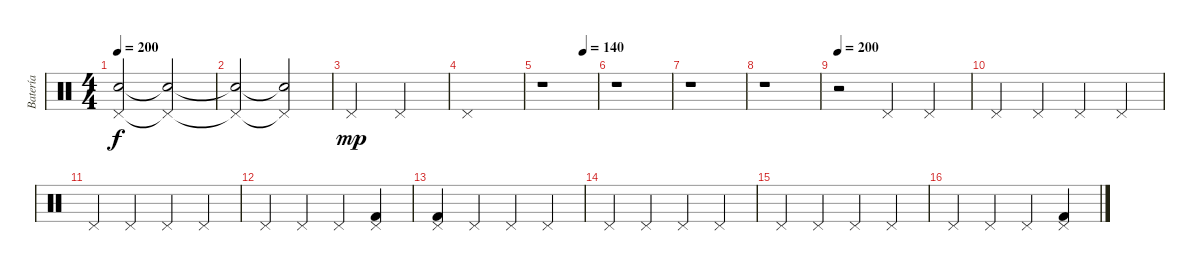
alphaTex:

\track ("Batería" "Batería") {instrument percussion}
\staff {score}
\articulation defaults
\ts (4 4)
\tempo 200
\clef neutral
\ks c
("Pedal Hi-Hat (hit)"{t} "Snare (hit)"{t}).2{dy f} ("Pedal Hi-Hat (hit)"{t} "Snare (hit)"{t}).2 |
("Pedal Hi-Hat (hit)"{t} "Snare (hit)"{t}).2 ("Pedal Hi-Hat (hit)"{t} "Snare (hit)"{t}).2 |
"Pedal Hi-Hat (hit)".2{dy mp} "Pedal Hi-Hat (hit)".2 |
"Pedal Hi-Hat (hit)".1 |
\tempo (140 0.75)
r.1 |
r.1 |
r.1 |
r.1 |
\tempo 190
\tempo 200
r.2 "Pedal Hi-Hat (hit)".4 "Pedal Hi-Hat (hit)".4 |
"Pedal Hi-Hat (hit)".4 "Pedal Hi-Hat (hit)".4 "Pedal Hi-Hat (hit)".4 "Pedal Hi-Hat (hit)".4 |
"Pedal Hi-Hat (hit)".4 "Pedal Hi-Hat (hit)".4 "Pedal Hi-Hat (hit)".4 "Pedal Hi-Hat (hit)".4 |
"Pedal Hi-Hat (hit)".4 "Pedal Hi-Hat (hit)".4 "Pedal Hi-Hat (hit)".4 ("Pedal Hi-Hat (hit)" "Kick (hit) 2").4 |
("Pedal Hi-Hat (hit)" "Kick (hit) 2").4 "Pedal Hi-Hat (hit)".4 "Pedal Hi-Hat (hit)".4 "Pedal Hi-Hat (hit)".4 |
"Pedal Hi-Hat (hit)".4 "Pedal Hi-Hat (hit)".4 "Pedal Hi-Hat (hit)".4 "Pedal Hi-Hat (hit)".4 |
"Pedal Hi-Hat (hit)".4 "Pedal Hi-Hat (hit)".4 "Pedal Hi-Hat (hit)".4 "Pedal Hi-Hat (hit)".4 |
"Pedal Hi-Hat (hit)".4 "Pedal Hi-Hat (hit)".4 "Pedal Hi-Hat (hit)".4 ("Pedal Hi-Hat (hit)" "Kick (hit) 2").4
